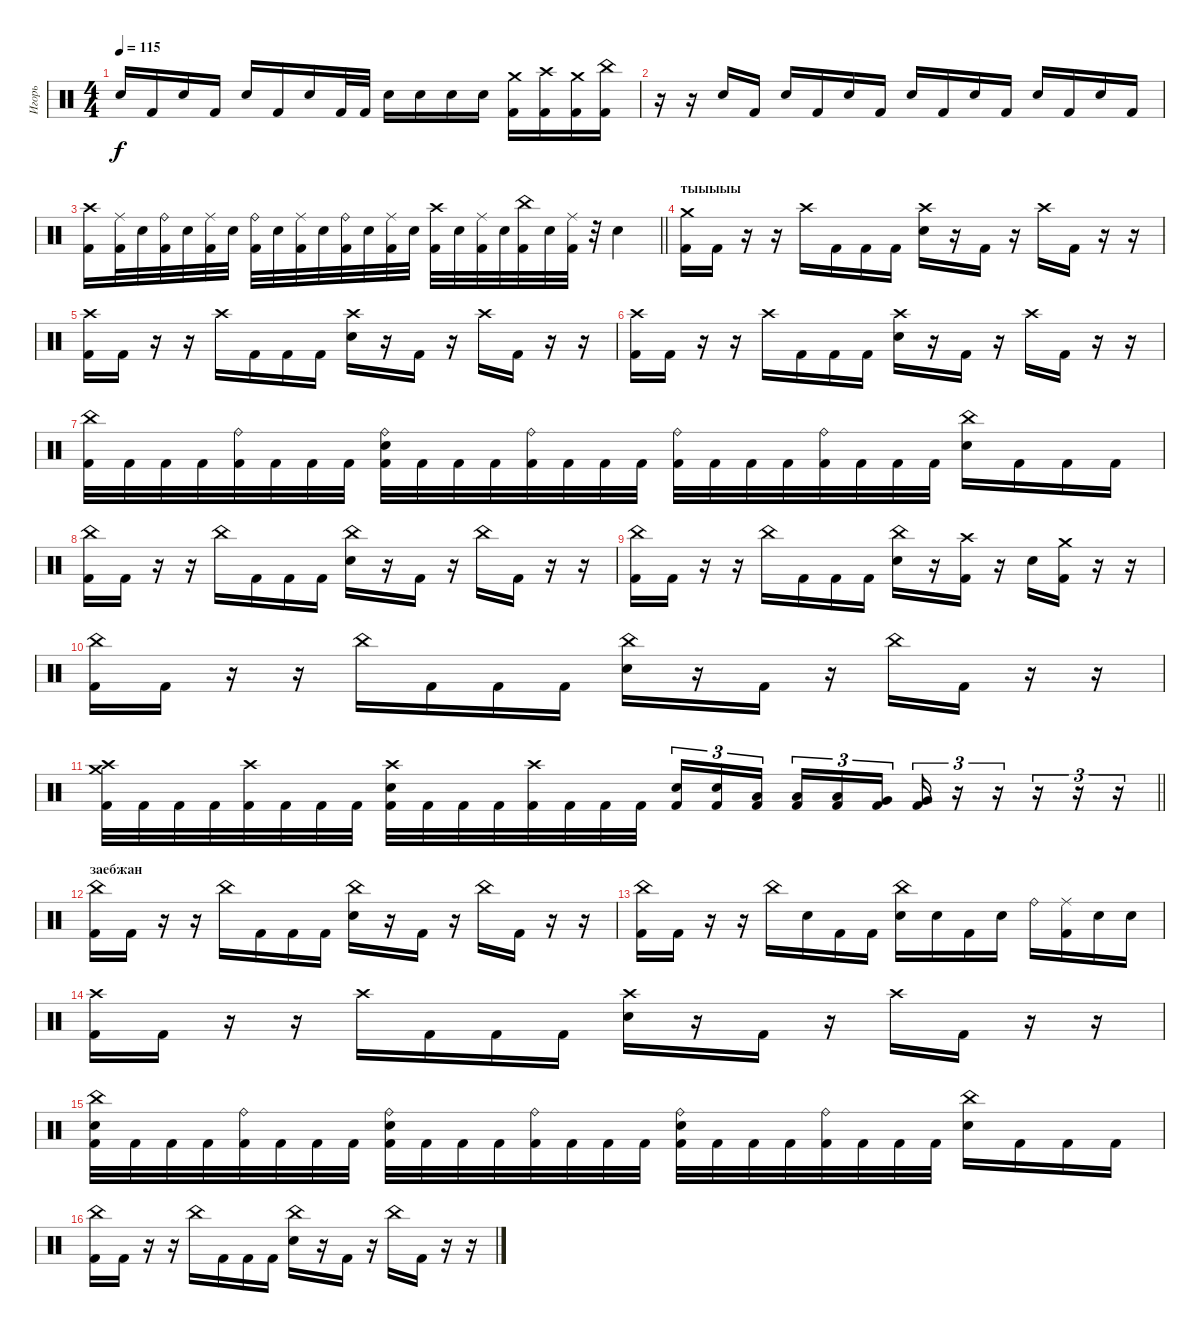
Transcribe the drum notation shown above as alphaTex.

\track ("Игорь" "Игорь") {instrument percussion}
\staff {score}
\articulation defaults
\ts (4 4)
\tempo 115
\clef neutral
\ks c "Electric Snare (hit)".16{dy f} "Kick (hit) 2".16 "Electric Snare (hit)".16 "Kick (hit) 2".16 "Electric Snare (hit)".16 "Kick (hit) 2".16 "Electric Snare (hit)".16 "Kick (hit) 2".32 "Kick (hit) 2".32 "Electric Snare (hit)".16 "Electric Snare (hit)".16 "Electric Snare (hit)".16 "Electric Snare (hit)".16
("Crash medium (hit)" "Kick (hit) 2").16 ("Crash high (hit)" "Kick (hit) 2").16 ("Crash medium (hit)" "Kick (hit) 2").16 ("China (hit)" "Kick (hit) 2").16 |
r.16 r.16 "Electric Snare (hit)".16 "Kick (hit) 2".16 "Electric Snare (hit)".16 "Kick (hit) 2".16 "Electric Snare (hit)".16 "Kick (hit) 2".16 "Electric Snare (hit)".16 "Kick (hit) 2".16 "Electric Snare (hit)".16 "Kick (hit) 2".16 "Electric Snare (hit)".16 "Kick (hit) 2".16 "Electric Snare (hit)".16 "Kick (hit) 2".16 |
\barLineRight lightlight
("Crash high (hit)" "Kick (hit) 2").16 ("Ride (middle)" "Kick (hit) 2").32 "Electric Snare (hit)".32 ("Ride (bell)" "Kick (hit) 2").32 "Electric Snare (hit)".32 ("Ride (middle)" "Kick (hit) 2").32 "Electric Snare (hit)".32 ("Ride (bell)" "Kick (hit) 2").32 "Electric Snare (hit)".32 ("Ride (middle)" "Kick (hit) 2").32 "Electric Snare (hit)".32 ("Ride (bell)" "Kick (hit) 2").32 "Electric Snare (hit)".32 ("Ride (middle)" "Kick (hit) 2").32 "Electric Snare (hit)".32 ("Crash high (hit)" "Kick (hit) 2").32 "Electric Snare (hit)".32 ("Ride (middle)" "Kick (hit) 2").32 "Electric Snare (hit)".32 ("China (hit)" "Kick (hit) 2").32 "Electric Snare (hit)".32 ("Ride (middle)" "Kick (hit) 2").32 r.32 "Electric Snare (hit)".4 |
\section ("" "тыыыыы")
("Crash medium (hit)" "Kick (hit) 2").16 "Kick (hit) 2".16 r.16 r.16 "Crash high (hit)".16 "Kick (hit) 2".16 "Kick (hit) 2".16 "Kick (hit) 2".16 ("Crash high (hit)" "Electric Snare (hit)").16 r.16 "Kick (hit) 2".16 r.16 "Crash high (hit)".16 "Kick (hit) 2".16 r.16 r.16 |
("Crash high (hit)" "Kick (hit) 2").16 "Kick (hit) 2".16 r.16 r.16 "Crash high (hit)".16 "Kick (hit) 2".16 "Kick (hit) 2".16 "Kick (hit) 2".16 ("Crash high (hit)" "Electric Snare (hit)").16 r.16 "Kick (hit) 2".16 r.16 "Crash high (hit)".16 "Kick (hit) 2".16 r.16 r.16 |
("Crash high (hit)" "Kick (hit) 2").16 "Kick (hit) 2".16 r.16 r.16 "Crash high (hit)".16 "Kick (hit) 2".16 "Kick (hit) 2".16 "Kick (hit) 2".16 ("Crash high (hit)" "Electric Snare (hit)").16 r.16 "Kick (hit) 2".16 r.16 "Crash high (hit)".16 "Kick (hit) 2".16 r.16 r.16 |
("China (hit)" "Kick (hit) 2").32 "Kick (hit) 2".32 "Kick (hit) 2".32 "Kick (hit) 2".32 ("Ride (bell)" "Kick (hit) 2").32 "Kick (hit) 2".32 "Kick (hit) 2".32 "Kick (hit) 2".32 ("Ride (bell)" "Electric Snare (hit)" "Kick (hit) 2").32 "Kick (hit) 2".32 "Kick (hit) 2".32 "Kick (hit) 2".32 ("Ride (bell)" "Kick (hit) 2").32 "Kick (hit) 2".32 "Kick (hit) 2".32 "Kick (hit) 2".32 ("Ride (bell)" "Kick (hit) 2").32 "Kick (hit) 2".32 "Kick (hit) 2".32 "Kick (hit) 2".32 ("Ride (bell)" "Kick (hit) 2").32 "Kick (hit) 2".32 "Kick (hit) 2".32 "Kick (hit) 2".32 ("China (hit)" "Electric Snare (hit)").16 "Kick (hit) 2".16 "Kick (hit) 2".16 "Kick (hit) 2".16 |
("China (hit)" "Kick (hit) 2").16 "Kick (hit) 2".16 r.16 r.16 "China (hit)".16 "Kick (hit) 2".16 "Kick (hit) 2".16 "Kick (hit) 2".16 ("China (hit)" "Electric Snare (hit)").16 r.16 "Kick (hit) 2".16 r.16 "China (hit)".16 "Kick (hit) 2".16 r.16 r.16 |
("China (hit)" "Kick (hit) 2").16 "Kick (hit) 2".16 r.16 r.16 "China (hit)".16 "Kick (hit) 2".16 "Kick (hit) 2".16 "Kick (hit) 2".16 ("China (hit)" "Electric Snare (hit)").16 r.16 ("Crash high (hit)" "Kick (hit) 2").16 r.16 "Electric Snare (hit)".16 ("Crash medium (hit)" "Kick (hit) 2").16 r.16 r.16 |
("China (hit)" "Kick (hit) 2").16 "Kick (hit) 2".16 r.16 r.16 "China (hit)".16 "Kick (hit) 2".16 "Kick (hit) 2".16 "Kick (hit) 2".16 ("China (hit)" "Electric Snare (hit)").16 r.16 "Kick (hit) 2".16 r.16 "China (hit)".16 "Kick (hit) 2".16 r.16 r.16 |
\barLineRight lightlight
("Crash high (hit)" "Crash medium (hit)" "Kick (hit) 2").32 "Kick (hit) 2".32 "Kick (hit) 2".32 "Kick (hit) 2".32 ("Crash high (hit)" "Kick (hit) 2").32 "Kick (hit) 2".32 "Kick (hit) 2".32 "Kick (hit) 2".32 ("Crash high (hit)" "Electric Snare (hit)" "Kick (hit) 2").32 "Kick (hit) 2".32 "Kick (hit) 2".32 "Kick (hit) 2".32 ("Crash high (hit)" "Kick (hit) 2").32 "Kick (hit) 2".32 "Kick (hit) 2".32 "Kick (hit) 2".32 ("Electric Snare (hit)" "Kick (hit) 2").16{tu (3 2)} ("Electric Snare (hit)" "Kick (hit) 2").16{tu (3 2)} ("Low Tom (hit)" "Kick (hit) 2").16{tu (3 2) beam splitsecondary} ("Low Tom (hit)" "Kick (hit) 2").16{tu (3 2)} ("Low Tom (hit)" "Kick (hit) 2").16{tu (3 2)} ("Very Low Tom (hit)" "Kick (hit) 2").16{tu (3 2)} ("Very Low Tom (hit)" "Kick (hit) 2").16{tu (3 2)} r.16{tu (3 2)} r.16{tu (3 2)} r.16{tu (3 2)} r.16{tu (3 2)} r.16{tu (3 2)} |
\section ("" "заебжан")
("China (hit)" "Kick (hit) 2").16 "Kick (hit) 2".16 r.16 r.16 "China (hit)".16 "Kick (hit) 2".16 "Kick (hit) 2".16 "Kick (hit) 2".16 ("China (hit)" "Electric Snare (hit)").16 r.16 "Kick (hit) 2".16 r.16 "China (hit)".16 "Kick (hit) 2".16 r.16 r.16 |
("China (hit)" "Kick (hit) 2").16 "Kick (hit) 2".16 r.16 r.16 "China (hit)".16 "Electric Snare (hit)".16 "Kick (hit) 2".16 "Kick (hit) 2".16 ("China (hit)" "Electric Snare (hit)").16 "Electric Snare (hit)".16 "Kick (hit) 2".16 "Electric Snare (hit)".16 "Ride (bell)".16 ("Ride (middle)" "Kick (hit) 2").16 "Electric Snare (hit)".16 "Electric Snare (hit)".16 |
("Crash high (hit)" "Kick (hit) 2").16 "Kick (hit) 2".16 r.16 r.16 "Crash high (hit)".16 "Kick (hit) 2".16 "Kick (hit) 2".16 "Kick (hit) 2".16 ("Crash high (hit)" "Electric Snare (hit)").16 r.16 "Kick (hit) 2".16 r.16 "Crash high (hit)".16 "Kick (hit) 2".16 r.16 r.16 |
("China (hit)" "Electric Snare (hit)" "Kick (hit) 2").32 "Kick (hit) 2".32 "Kick (hit) 2".32 "Kick (hit) 2".32 ("Ride (bell)" "Kick (hit) 2").32 "Kick (hit) 2".32 "Kick (hit) 2".32 "Kick (hit) 2".32 ("Ride (bell)" "Electric Snare (hit)" "Kick (hit) 2").32 "Kick (hit) 2".32 "Kick (hit) 2".32 "Kick (hit) 2".32 ("Ride (bell)" "Kick (hit) 2").32 "Kick (hit) 2".32 "Kick (hit) 2".32 "Kick (hit) 2".32 ("Ride (bell)" "Electric Snare (hit)" "Kick (hit) 2").32 "Kick (hit) 2".32 "Kick (hit) 2".32 "Kick (hit) 2".32 ("Ride (bell)" "Kick (hit) 2").32 "Kick (hit) 2".32 "Kick (hit) 2".32 "Kick (hit) 2".32 ("China (hit)" "Electric Snare (hit)").16 "Kick (hit) 2".16 "Kick (hit) 2".16 "Kick (hit) 2".16 |
("China (hit)" "Kick (hit) 2").16 "Kick (hit) 2".16 r.16 r.16 "China (hit)".16 "Kick (hit) 2".16 "Kick (hit) 2".16 "Kick (hit) 2".16 ("China (hit)" "Electric Snare (hit)").16 r.16 "Kick (hit) 2".16 r.16 "China (hit)".16 "Kick (hit) 2".16 r.16 r.16
